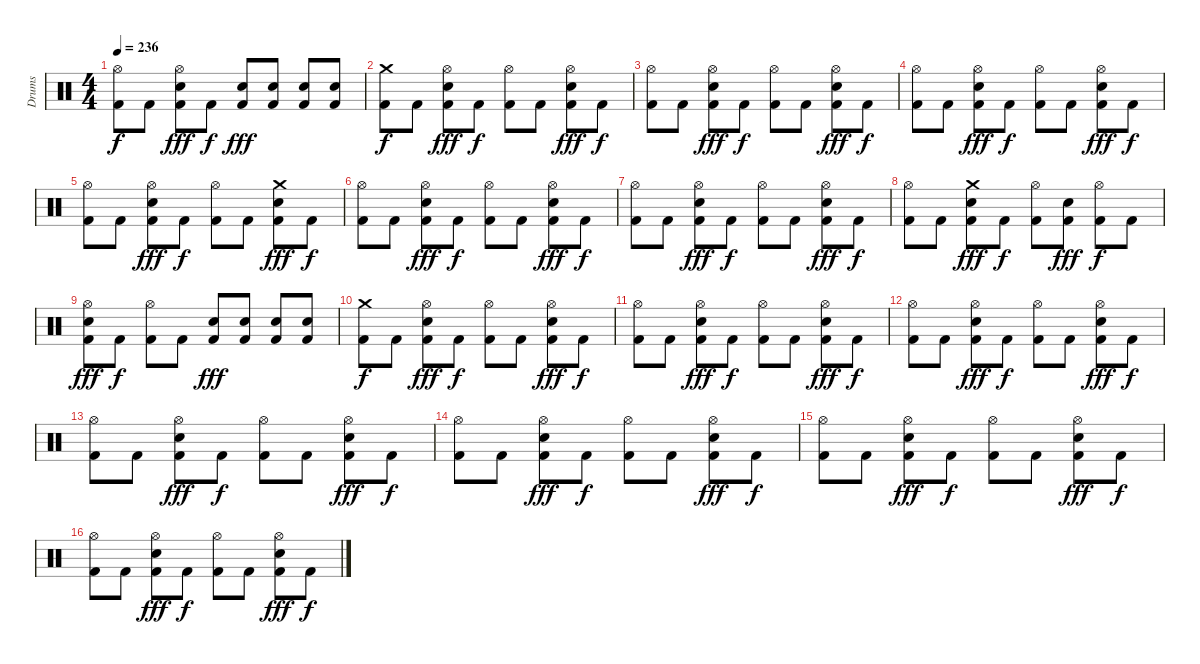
\track ("Drums" "Drums") {instrument percussion}
\staff {score}
\articulation defaults
\ts (4 4)
\tempo 236
\clef neutral
\ks c
("Hi-Hat (open)" "Kick (hit) 2").8{dy f} "Kick (hit) 2".8 ("Hi-Hat (open)" "Kick (hit) 2" "Electric Snare (hit)").8{dy fff} "Kick (hit) 2".8{dy f} ("Kick (hit) 2" "Electric Snare (hit)").8{dy fff} ("Kick (hit) 2" "Electric Snare (hit)").8 ("Kick (hit) 2" "Electric Snare (hit)").8 ("Kick (hit) 2" "Electric Snare (hit)").8 |
("Crash medium (hit)" "Kick (hit) 2").8{dy f} "Kick (hit) 2".8 ("Hi-Hat (open)" "Kick (hit) 2" "Electric Snare (hit)").8{dy fff} "Kick (hit) 2".8{dy f} ("Hi-Hat (open)" "Kick (hit) 2").8 "Kick (hit) 2".8 ("Hi-Hat (open)" "Kick (hit) 2" "Electric Snare (hit)").8{dy fff} "Kick (hit) 2".8{dy f} |
("Hi-Hat (open)" "Kick (hit) 2").8 "Kick (hit) 2".8 ("Hi-Hat (open)" "Kick (hit) 2" "Electric Snare (hit)").8{dy fff} "Kick (hit) 2".8{dy f} ("Hi-Hat (open)" "Kick (hit) 2").8 "Kick (hit) 2".8 ("Hi-Hat (open)" "Kick (hit) 2" "Electric Snare (hit)").8{dy fff} "Kick (hit) 2".8{dy f} |
("Hi-Hat (open)" "Kick (hit) 2").8 "Kick (hit) 2".8 ("Hi-Hat (open)" "Kick (hit) 2" "Electric Snare (hit)").8{dy fff} "Kick (hit) 2".8{dy f} ("Hi-Hat (open)" "Kick (hit) 2").8 "Kick (hit) 2".8 ("Hi-Hat (open)" "Kick (hit) 2" "Electric Snare (hit)").8{dy fff} "Kick (hit) 2".8{dy f} |
("Hi-Hat (open)" "Kick (hit) 2").8 "Kick (hit) 2".8 ("Hi-Hat (open)" "Kick (hit) 2" "Electric Snare (hit)").8{dy fff} "Kick (hit) 2".8{dy f} ("Hi-Hat (open)" "Kick (hit) 2").8 "Kick (hit) 2".8 ("Crash medium (hit)" "Kick (hit) 2" "Electric Snare (hit)").8{dy fff} "Kick (hit) 2".8{dy f} |
("Hi-Hat (open)" "Kick (hit) 2").8 "Kick (hit) 2".8 ("Hi-Hat (open)" "Kick (hit) 2" "Electric Snare (hit)").8{dy fff} "Kick (hit) 2".8{dy f} ("Hi-Hat (open)" "Kick (hit) 2").8 "Kick (hit) 2".8 ("Hi-Hat (open)" "Kick (hit) 2" "Electric Snare (hit)").8{dy fff} "Kick (hit) 2".8{dy f} |
("Hi-Hat (open)" "Kick (hit) 2").8 "Kick (hit) 2".8 ("Hi-Hat (open)" "Kick (hit) 2" "Electric Snare (hit)").8{dy fff} "Kick (hit) 2".8{dy f} ("Hi-Hat (open)" "Kick (hit) 2").8 "Kick (hit) 2".8 ("Hi-Hat (open)" "Kick (hit) 2" "Electric Snare (hit)").8{dy fff} "Kick (hit) 2".8{dy f} |
("Hi-Hat (open)" "Kick (hit) 2").8 "Kick (hit) 2".8 ("Crash medium (hit)" "Kick (hit) 2" "Electric Snare (hit)").8{dy fff} "Kick (hit) 2".8{dy f} ("Hi-Hat (open)" "Kick (hit) 2").8 ("Kick (hit) 2" "Electric Snare (hit)").8{dy fff} ("Hi-Hat (open)" "Kick (hit) 2").8{dy f} "Kick (hit) 2".8 |
("Hi-Hat (open)" "Kick (hit) 2" "Electric Snare (hit)").8{dy fff} "Kick (hit) 2".8{dy f} ("Hi-Hat (open)" "Kick (hit) 2").8 "Kick (hit) 2".8 ("Kick (hit) 2" "Electric Snare (hit)").8{dy fff} ("Kick (hit) 2" "Electric Snare (hit)").8 ("Kick (hit) 2" "Electric Snare (hit)").8 ("Kick (hit) 2" "Electric Snare (hit)").8 |
("Crash medium (hit)" "Kick (hit) 2").8{dy f} "Kick (hit) 2".8 ("Hi-Hat (open)" "Kick (hit) 2" "Electric Snare (hit)").8{dy fff} "Kick (hit) 2".8{dy f} ("Hi-Hat (open)" "Kick (hit) 2").8 "Kick (hit) 2".8 ("Hi-Hat (open)" "Kick (hit) 2" "Electric Snare (hit)").8{dy fff} "Kick (hit) 2".8{dy f} |
("Hi-Hat (open)" "Kick (hit) 2").8 "Kick (hit) 2".8 ("Hi-Hat (open)" "Kick (hit) 2" "Electric Snare (hit)").8{dy fff} "Kick (hit) 2".8{dy f} ("Hi-Hat (open)" "Kick (hit) 2").8 "Kick (hit) 2".8 ("Hi-Hat (open)" "Kick (hit) 2" "Electric Snare (hit)").8{dy fff} "Kick (hit) 2".8{dy f} |
("Hi-Hat (open)" "Kick (hit) 2").8 "Kick (hit) 2".8 ("Hi-Hat (open)" "Kick (hit) 2" "Electric Snare (hit)").8{dy fff} "Kick (hit) 2".8{dy f} ("Hi-Hat (open)" "Kick (hit) 2").8 "Kick (hit) 2".8 ("Hi-Hat (open)" "Kick (hit) 2" "Electric Snare (hit)").8{dy fff} "Kick (hit) 2".8{dy f} |
("Hi-Hat (open)" "Kick (hit) 2").8 "Kick (hit) 2".8 ("Hi-Hat (open)" "Kick (hit) 2" "Electric Snare (hit)").8{dy fff} "Kick (hit) 2".8{dy f} ("Hi-Hat (open)" "Kick (hit) 2").8 "Kick (hit) 2".8 ("Hi-Hat (open)" "Kick (hit) 2" "Electric Snare (hit)").8{dy fff} "Kick (hit) 2".8{dy f} |
("Hi-Hat (open)" "Kick (hit) 2").8 "Kick (hit) 2".8 ("Hi-Hat (open)" "Kick (hit) 2" "Electric Snare (hit)").8{dy fff} "Kick (hit) 2".8{dy f} ("Hi-Hat (open)" "Kick (hit) 2").8 "Kick (hit) 2".8 ("Hi-Hat (open)" "Kick (hit) 2" "Electric Snare (hit)").8{dy fff} "Kick (hit) 2".8{dy f} |
("Hi-Hat (open)" "Kick (hit) 2").8 "Kick (hit) 2".8 ("Hi-Hat (open)" "Kick (hit) 2" "Electric Snare (hit)").8{dy fff} "Kick (hit) 2".8{dy f} ("Hi-Hat (open)" "Kick (hit) 2").8 "Kick (hit) 2".8 ("Hi-Hat (open)" "Kick (hit) 2" "Electric Snare (hit)").8{dy fff} "Kick (hit) 2".8{dy f} |
("Hi-Hat (open)" "Kick (hit) 2").8 "Kick (hit) 2".8 ("Hi-Hat (open)" "Kick (hit) 2" "Electric Snare (hit)").8{dy fff} "Kick (hit) 2".8{dy f} ("Hi-Hat (open)" "Kick (hit) 2").8 "Kick (hit) 2".8 ("Hi-Hat (open)" "Kick (hit) 2" "Electric Snare (hit)").8{dy fff} "Kick (hit) 2".8{dy f}
